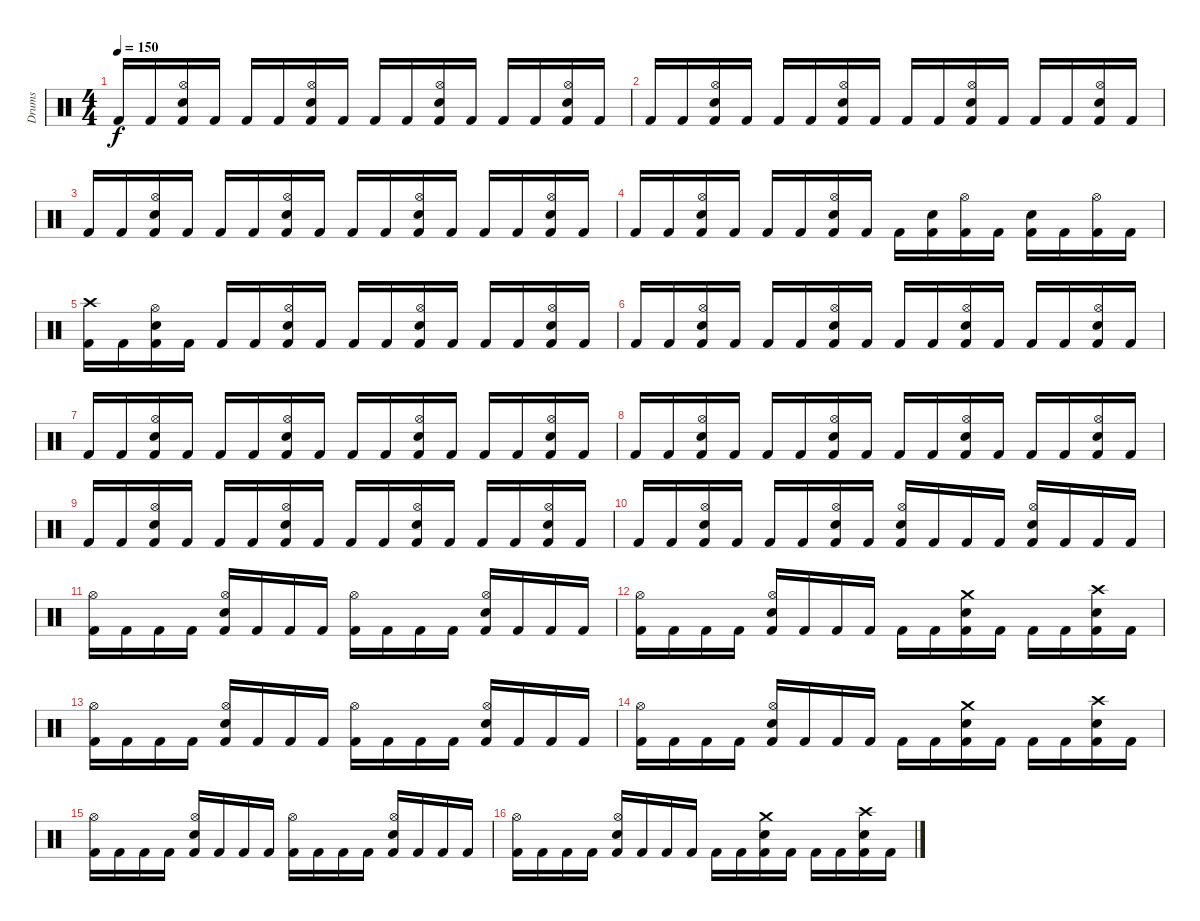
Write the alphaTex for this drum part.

\track ("Drums" "Drums") {instrument percussion}
\staff {score}
\articulation defaults
\ts (4 4)
\tempo 150
\clef neutral
\ks c "Kick (hit) 2".16{dy f} "Kick (hit) 2".16
("Hi-Hat (open)" "Snare (hit) 2" "Kick (hit) 2").16 "Kick (hit) 2".16 "Kick (hit) 2".16 "Kick (hit) 2".16 ("Hi-Hat (open)" "Snare (hit) 2" "Kick (hit) 2").16 "Kick (hit) 2".16 "Kick (hit) 2".16 "Kick (hit) 2".16 ("Hi-Hat (open)" "Snare (hit) 2" "Kick (hit) 2").16 "Kick (hit) 2".16 "Kick (hit) 2".16 "Kick (hit) 2".16 ("Hi-Hat (open)" "Snare (hit) 2" "Kick (hit) 2").16 "Kick (hit) 2".16 |
"Kick (hit) 2".16 "Kick (hit) 2".16 ("Hi-Hat (open)" "Snare (hit) 2" "Kick (hit) 2").16 "Kick (hit) 2".16 "Kick (hit) 2".16 "Kick (hit) 2".16 ("Hi-Hat (open)" "Snare (hit) 2" "Kick (hit) 2").16 "Kick (hit) 2".16 "Kick (hit) 2".16 "Kick (hit) 2".16 ("Hi-Hat (open)" "Snare (hit) 2" "Kick (hit) 2").16 "Kick (hit) 2".16 "Kick (hit) 2".16 "Kick (hit) 2".16 ("Hi-Hat (open)" "Snare (hit) 2" "Kick (hit) 2").16 "Kick (hit) 2".16 |
"Kick (hit) 2".16 "Kick (hit) 2".16 ("Hi-Hat (open)" "Snare (hit) 2" "Kick (hit) 2").16 "Kick (hit) 2".16 "Kick (hit) 2".16 "Kick (hit) 2".16 ("Hi-Hat (open)" "Snare (hit) 2" "Kick (hit) 2").16 "Kick (hit) 2".16 "Kick (hit) 2".16 "Kick (hit) 2".16 ("Hi-Hat (open)" "Snare (hit) 2" "Kick (hit) 2").16 "Kick (hit) 2".16 "Kick (hit) 2".16 "Kick (hit) 2".16 ("Hi-Hat (open)" "Snare (hit) 2" "Kick (hit) 2").16 "Kick (hit) 2".16 |
"Kick (hit) 2".16 "Kick (hit) 2".16 ("Hi-Hat (open)" "Snare (hit) 2" "Kick (hit) 2").16 "Kick (hit) 2".16 "Kick (hit) 2".16 "Kick (hit) 2".16 ("Hi-Hat (open)" "Snare (hit) 2" "Kick (hit) 2").16 "Kick (hit) 2".16 "Kick (hit) 2".16 ("Snare (hit) 2" "Kick (hit) 2").16 ("Hi-Hat (open)" "Kick (hit) 2").16 "Kick (hit) 2".16 ("Snare (hit) 2" "Kick (hit) 2").16 "Kick (hit) 2".16 ("Hi-Hat (open)" "Kick (hit) 2").16 "Kick (hit) 2".16 |
("Crash high (hit)" "Kick (hit) 2").16 "Kick (hit) 2".16 ("Hi-Hat (open)" "Snare (hit) 2" "Kick (hit) 2").16 "Kick (hit) 2".16 "Kick (hit) 2".16 "Kick (hit) 2".16 ("Hi-Hat (open)" "Snare (hit) 2" "Kick (hit) 2").16 "Kick (hit) 2".16 "Kick (hit) 2".16 "Kick (hit) 2".16 ("Hi-Hat (open)" "Snare (hit) 2" "Kick (hit) 2").16 "Kick (hit) 2".16 "Kick (hit) 2".16 "Kick (hit) 2".16 ("Hi-Hat (open)" "Snare (hit) 2" "Kick (hit) 2").16 "Kick (hit) 2".16 |
"Kick (hit) 2".16 "Kick (hit) 2".16 ("Hi-Hat (open)" "Snare (hit) 2" "Kick (hit) 2").16 "Kick (hit) 2".16 "Kick (hit) 2".16 "Kick (hit) 2".16 ("Hi-Hat (open)" "Snare (hit) 2" "Kick (hit) 2").16 "Kick (hit) 2".16 "Kick (hit) 2".16 "Kick (hit) 2".16 ("Hi-Hat (open)" "Snare (hit) 2" "Kick (hit) 2").16 "Kick (hit) 2".16 "Kick (hit) 2".16 "Kick (hit) 2".16 ("Hi-Hat (open)" "Snare (hit) 2" "Kick (hit) 2").16 "Kick (hit) 2".16 |
"Kick (hit) 2".16 "Kick (hit) 2".16 ("Hi-Hat (open)" "Snare (hit) 2" "Kick (hit) 2").16 "Kick (hit) 2".16 "Kick (hit) 2".16 "Kick (hit) 2".16 ("Hi-Hat (open)" "Snare (hit) 2" "Kick (hit) 2").16 "Kick (hit) 2".16 "Kick (hit) 2".16 "Kick (hit) 2".16 ("Hi-Hat (open)" "Snare (hit) 2" "Kick (hit) 2").16 "Kick (hit) 2".16 "Kick (hit) 2".16 "Kick (hit) 2".16 ("Hi-Hat (open)" "Snare (hit) 2" "Kick (hit) 2").16 "Kick (hit) 2".16 |
"Kick (hit) 2".16 "Kick (hit) 2".16 ("Hi-Hat (open)" "Snare (hit) 2" "Kick (hit) 2").16 "Kick (hit) 2".16 "Kick (hit) 2".16 "Kick (hit) 2".16 ("Hi-Hat (open)" "Snare (hit) 2" "Kick (hit) 2").16 "Kick (hit) 2".16 "Kick (hit) 2".16 "Kick (hit) 2".16 ("Hi-Hat (open)" "Snare (hit) 2" "Kick (hit) 2").16 "Kick (hit) 2".16 "Kick (hit) 2".16 "Kick (hit) 2".16 ("Hi-Hat (open)" "Snare (hit) 2" "Kick (hit) 2").16 "Kick (hit) 2".16 |
"Kick (hit) 2".16 "Kick (hit) 2".16 ("Hi-Hat (open)" "Snare (hit) 2" "Kick (hit) 2").16 "Kick (hit) 2".16 "Kick (hit) 2".16 "Kick (hit) 2".16 ("Hi-Hat (open)" "Snare (hit) 2" "Kick (hit) 2").16 "Kick (hit) 2".16 "Kick (hit) 2".16 "Kick (hit) 2".16 ("Hi-Hat (open)" "Snare (hit) 2" "Kick (hit) 2").16 "Kick (hit) 2".16 "Kick (hit) 2".16 "Kick (hit) 2".16 ("Hi-Hat (open)" "Snare (hit) 2" "Kick (hit) 2").16 "Kick (hit) 2".16 |
"Kick (hit) 2".16 "Kick (hit) 2".16 ("Hi-Hat (open)" "Snare (hit) 2" "Kick (hit) 2").16 "Kick (hit) 2".16 "Kick (hit) 2".16 "Kick (hit) 2".16 ("Hi-Hat (open)" "Snare (hit) 2" "Kick (hit) 2").16 "Kick (hit) 2".16 ("Hi-Hat (open)" "Snare (hit) 2" "Kick (hit) 2").16 "Kick (hit) 2".16 "Kick (hit) 2".16 "Kick (hit) 2".16 ("Hi-Hat (open)" "Snare (hit) 2" "Kick (hit) 2").16 "Kick (hit) 2".16 "Kick (hit) 2".16 "Kick (hit) 2".16 |
("Hi-Hat (open)" "Kick (hit) 2").16 "Kick (hit) 2".16 "Kick (hit) 2".16 "Kick (hit) 2".16 ("Hi-Hat (open)" "Snare (hit) 2" "Kick (hit) 2").16 "Kick (hit) 2".16 "Kick (hit) 2".16 "Kick (hit) 2".16 ("Hi-Hat (open)" "Kick (hit) 2").16 "Kick (hit) 2".16 "Kick (hit) 2".16 "Kick (hit) 2".16 ("Hi-Hat (open)" "Snare (hit) 2" "Kick (hit) 2").16 "Kick (hit) 2".16 "Kick (hit) 2".16 "Kick (hit) 2".16 |
("Hi-Hat (open)" "Kick (hit) 2").16 "Kick (hit) 2".16 "Kick (hit) 2".16 "Kick (hit) 2".16 ("Hi-Hat (open)" "Snare (hit) 2" "Kick (hit) 2").16 "Kick (hit) 2".16 "Kick (hit) 2".16 "Kick (hit) 2".16 "Kick (hit) 2".16 "Kick (hit) 2".16 ("Crash medium (hit)" "Snare (hit) 2" "Kick (hit) 2").16 "Kick (hit) 2".16 "Kick (hit) 2".16 "Kick (hit) 2".16 ("Crash high (hit)" "Snare (hit) 2" "Kick (hit) 2").16 "Kick (hit) 2".16 |
("Hi-Hat (open)" "Kick (hit) 2").16 "Kick (hit) 2".16 "Kick (hit) 2".16 "Kick (hit) 2".16 ("Hi-Hat (open)" "Snare (hit) 2" "Kick (hit) 2").16 "Kick (hit) 2".16 "Kick (hit) 2".16 "Kick (hit) 2".16 ("Hi-Hat (open)" "Kick (hit) 2").16 "Kick (hit) 2".16 "Kick (hit) 2".16 "Kick (hit) 2".16 ("Hi-Hat (open)" "Snare (hit) 2" "Kick (hit) 2").16 "Kick (hit) 2".16 "Kick (hit) 2".16 "Kick (hit) 2".16 |
("Hi-Hat (open)" "Kick (hit) 2").16 "Kick (hit) 2".16 "Kick (hit) 2".16 "Kick (hit) 2".16 ("Hi-Hat (open)" "Snare (hit) 2" "Kick (hit) 2").16 "Kick (hit) 2".16 "Kick (hit) 2".16 "Kick (hit) 2".16 "Kick (hit) 2".16 "Kick (hit) 2".16 ("Crash medium (hit)" "Snare (hit) 2" "Kick (hit) 2").16 "Kick (hit) 2".16 "Kick (hit) 2".16 "Kick (hit) 2".16 ("Crash high (hit)" "Snare (hit) 2" "Kick (hit) 2").16 "Kick (hit) 2".16 |
("Hi-Hat (open)" "Kick (hit) 2").16 "Kick (hit) 2".16 "Kick (hit) 2".16 "Kick (hit) 2".16 ("Hi-Hat (open)" "Snare (hit) 2" "Kick (hit) 2").16 "Kick (hit) 2".16 "Kick (hit) 2".16 "Kick (hit) 2".16 ("Hi-Hat (open)" "Kick (hit) 2").16 "Kick (hit) 2".16 "Kick (hit) 2".16 "Kick (hit) 2".16 ("Hi-Hat (open)" "Snare (hit) 2" "Kick (hit) 2").16 "Kick (hit) 2".16 "Kick (hit) 2".16 "Kick (hit) 2".16 |
("Hi-Hat (open)" "Kick (hit) 2").16 "Kick (hit) 2".16 "Kick (hit) 2".16 "Kick (hit) 2".16 ("Hi-Hat (open)" "Snare (hit) 2" "Kick (hit) 2").16 "Kick (hit) 2".16 "Kick (hit) 2".16 "Kick (hit) 2".16 "Kick (hit) 2".16 "Kick (hit) 2".16 ("Crash medium (hit)" "Snare (hit) 2" "Kick (hit) 2").16 "Kick (hit) 2".16 "Kick (hit) 2".16 "Kick (hit) 2".16 ("Crash high (hit)" "Snare (hit) 2" "Kick (hit) 2").16 "Kick (hit) 2".16
